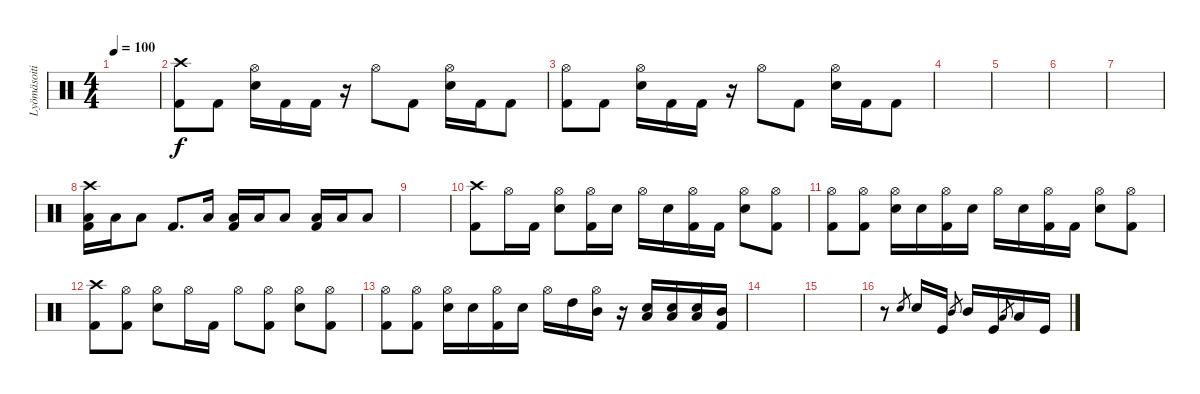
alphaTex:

\track ("Lyömäsoitin" "Lyömäsoiti") {instrument percussion}
\staff {score}
\articulation defaults
\ts (4 4)
\tempo 100
\clef neutral
\ks c
|
("Crash high (hit)" "Kick (hit) 2").8 "Kick (hit) 2".8 ("Hi-Hat (open)" "Snare (hit) 2").16 "Kick (hit) 2".16 "Kick (hit) 2".16 r.16 "Hi-Hat (open)".8 "Kick (hit) 2".8 ("Hi-Hat (open)" "Snare (hit) 2").16 "Kick (hit) 2".16 "Kick (hit) 2".8 |
("Hi-Hat (open)" "Kick (hit) 2").8 "Kick (hit) 2".8 ("Hi-Hat (open)" "Snare (hit) 2").16 "Kick (hit) 2".16 "Kick (hit) 2".16 r.16 "Hi-Hat (open)".8 "Kick (hit) 2".8 ("Hi-Hat (open)" "Snare (hit) 2").16 "Kick (hit) 2".16 "Kick (hit) 2".8 |
|
|
|
|
("Crash high (hit)" "Low Tom (hit)" "Kick (hit) 2").16 "Low Tom (hit)".16 "Low Tom (hit)".8 "Kick (hit) 2".8{d} "Low Tom (hit)".16 ("Low Tom (hit)" "Kick (hit) 2").16 "Low Tom (hit)".16 "Low Tom (hit)".8 ("Low Tom (hit)" "Kick (hit) 2").16 "Low Tom (hit)".16 "Low Tom (hit)".8 |
|
("Crash high (hit)" "Kick (hit) 2").8 "Hi-Hat (open)".16 "Kick (hit) 2".16 ("Hi-Hat (open)" "Snare (hit) 2").8 ("Hi-Hat (open)" "Kick (hit) 2").16 "Snare (hit) 2".16 "Hi-Hat (open)".16 "Snare (hit) 2".16 ("Hi-Hat (open)" "Kick (hit) 2").16 "Kick (hit) 2".16 ("Hi-Hat (open)" "Snare (hit) 2").8 ("Hi-Hat (open)" "Kick (hit) 2").8 |
("Hi-Hat (open)" "Kick (hit) 2").8 ("Hi-Hat (open)" "Kick (hit) 2").8 ("Hi-Hat (open)" "Snare (hit) 2").16 "Snare (hit) 2".16 ("Hi-Hat (open)" "Kick (hit) 2").16 "Snare (hit) 2".16 "Hi-Hat (open)".16 "Snare (hit) 2".16 ("Hi-Hat (open)" "Kick (hit) 2").16 "Kick (hit) 2".16 ("Hi-Hat (open)" "Snare (hit) 2").8 ("Hi-Hat (open)" "Kick (hit) 2").8 |
("Crash high (hit)" "Kick (hit) 2").8 ("Hi-Hat (open)" "Kick (hit) 2").8 ("Hi-Hat (open)" "Snare (hit) 2").8 "Hi-Hat (open)".16 "Kick (hit) 2".16 "Hi-Hat (open)".8 ("Hi-Hat (open)" "Kick (hit) 2").8 ("Hi-Hat (open)" "Snare (hit) 2").8 ("Hi-Hat (open)" "Kick (hit) 2").8 |
("Hi-Hat (open)" "Kick (hit) 2").8 ("Hi-Hat (open)" "Kick (hit) 2").8 ("Hi-Hat (open)" "Snare (hit) 2").16 "Snare (hit) 2".16 ("Hi-Hat (open)" "Kick (hit) 2").16 "Snare (hit) 2".16 "Hi-Hat (open)".16 "High Tom (hit)".16 ("Hi-Hat (open)" "Mid Tom (hit)").16 r.16 ("Low Tom (hit)" "Snare (hit) 2").16 ("Low Tom (hit)" "Snare (hit) 2").16 ("Low Tom (hit)" "Snare (hit) 2").16 ("Mid Tom (hit)" "Kick (hit) 2").16 |
|
|
r.8 "Electric Snare (hit)".8{gr} "Electric Snare (hit)".16 "Kick (hit)".16 "Mid Tom (hit)".8{gr} "Mid Tom (hit)".16 "Kick (hit)".16 "Low Tom (hit)".8{gr} "Low Tom (hit)".16 "Kick (hit)".16
